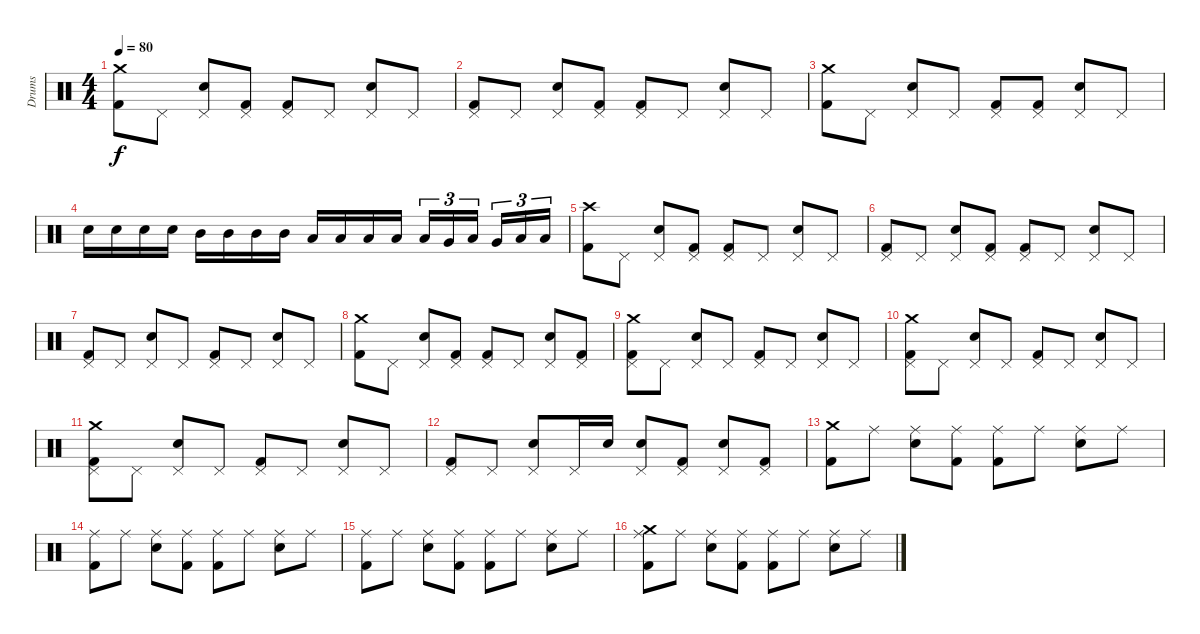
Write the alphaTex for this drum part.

\track ("Drums" "Drums") {instrument percussion}
\staff {score}
\articulation defaults
\ts (4 4)
\tempo 80
\clef neutral
\ks c
("Crash medium (hit)" "Kick (hit) 2").8{dy f} "Pedal Hi-Hat (hit)".8 ("Pedal Hi-Hat (hit)" "Snare (hit) 2").8 ("Pedal Hi-Hat (hit)" "Kick (hit) 2").8 ("Pedal Hi-Hat (hit)" "Kick (hit) 2").8 "Pedal Hi-Hat (hit)".8 ("Pedal Hi-Hat (hit)" "Snare (hit) 2").8 "Pedal Hi-Hat (hit)".8 |
("Pedal Hi-Hat (hit)" "Kick (hit) 2").8 "Pedal Hi-Hat (hit)".8 ("Pedal Hi-Hat (hit)" "Snare (hit) 2").8 ("Pedal Hi-Hat (hit)" "Kick (hit) 2").8 ("Pedal Hi-Hat (hit)" "Kick (hit) 2").8 "Pedal Hi-Hat (hit)".8 ("Pedal Hi-Hat (hit)" "Snare (hit) 2").8 "Pedal Hi-Hat (hit)".8 |
("Crash medium (hit)" "Kick (hit) 2").8 "Pedal Hi-Hat (hit)".8 ("Pedal Hi-Hat (hit)" "Snare (hit) 2").8 "Pedal Hi-Hat (hit)".8 ("Pedal Hi-Hat (hit)" "Kick (hit) 2").8 ("Pedal Hi-Hat (hit)" "Kick (hit) 2").8 ("Pedal Hi-Hat (hit)" "Snare (hit) 2").8 "Pedal Hi-Hat (hit)".8 |
"Snare (hit) 2".16 "Snare (hit) 2".16 "Snare (hit) 2".16 "Snare (hit) 2".16 "Mid Tom (hit)".16 "Mid Tom (hit)".16 "Mid Tom (hit)".16 "Mid Tom (hit)".16 "Low Tom (hit)".16 "Low Tom (hit)".16 "Low Tom (hit)".16 "Low Tom (hit)".16 "Low Tom (hit)".16{tu (3 2)} "Very Low Tom (hit)".16{tu (3 2)} "Low Floor Tom (hit)".16{tu (3 2)} "Very Low Tom (hit)".16{tu (3 2)} "Low Floor Tom (hit)".16{tu (3 2)} "Low Floor Tom (hit)".16{tu (3 2)} |
("Crash high (hit)" "Kick (hit) 2").8 "Pedal Hi-Hat (hit)".8 ("Pedal Hi-Hat (hit)" "Snare (hit) 2").8 ("Pedal Hi-Hat (hit)" "Kick (hit) 2").8 ("Pedal Hi-Hat (hit)" "Kick (hit) 2").8 "Pedal Hi-Hat (hit)".8 ("Pedal Hi-Hat (hit)" "Snare (hit) 2").8 "Pedal Hi-Hat (hit)".8 |
("Pedal Hi-Hat (hit)" "Kick (hit) 2").8 "Pedal Hi-Hat (hit)".8 ("Pedal Hi-Hat (hit)" "Snare (hit) 2").8 ("Pedal Hi-Hat (hit)" "Kick (hit) 2").8 ("Pedal Hi-Hat (hit)" "Kick (hit) 2").8 "Pedal Hi-Hat (hit)".8 ("Pedal Hi-Hat (hit)" "Snare (hit) 2").8 "Pedal Hi-Hat (hit)".8 |
("Pedal Hi-Hat (hit)" "Kick (hit) 2").8 "Pedal Hi-Hat (hit)".8 ("Snare (hit) 2" "Pedal Hi-Hat (hit)").8 "Pedal Hi-Hat (hit)".8 ("Pedal Hi-Hat (hit)" "Kick (hit) 2").8 "Pedal Hi-Hat (hit)".8 ("Pedal Hi-Hat (hit)" "Snare (hit) 2").8 "Pedal Hi-Hat (hit)".8 |
("Crash medium (hit)" "Kick (hit) 2").8 "Pedal Hi-Hat (hit)".8 ("Pedal Hi-Hat (hit)" "Snare (hit) 2").8 ("Pedal Hi-Hat (hit)" "Kick (hit) 2").8 ("Pedal Hi-Hat (hit)" "Kick (hit) 2").8 "Pedal Hi-Hat (hit)".8 ("Pedal Hi-Hat (hit)" "Snare (hit) 2").8 ("Pedal Hi-Hat (hit)" "Kick (hit) 2").8 |
("Pedal Hi-Hat (hit)" "Crash medium (hit)" "Kick (hit) 2").8 "Pedal Hi-Hat (hit)".8 ("Pedal Hi-Hat (hit)" "Snare (hit) 2").8 "Pedal Hi-Hat (hit)".8 ("Pedal Hi-Hat (hit)" "Kick (hit) 2").8 "Pedal Hi-Hat (hit)".8 ("Pedal Hi-Hat (hit)" "Snare (hit) 2").8 "Pedal Hi-Hat (hit)".8 |
("Pedal Hi-Hat (hit)" "Crash medium (hit)" "Kick (hit) 2").8 "Pedal Hi-Hat (hit)".8 ("Pedal Hi-Hat (hit)" "Snare (hit) 2").8 "Pedal Hi-Hat (hit)".8 ("Pedal Hi-Hat (hit)" "Kick (hit) 2").8 "Pedal Hi-Hat (hit)".8 ("Pedal Hi-Hat (hit)" "Snare (hit) 2").8 "Pedal Hi-Hat (hit)".8 |
("Pedal Hi-Hat (hit)" "Crash medium (hit)" "Kick (hit) 2").8 "Pedal Hi-Hat (hit)".8 ("Pedal Hi-Hat (hit)" "Snare (hit) 2").8 "Pedal Hi-Hat (hit)".8 ("Pedal Hi-Hat (hit)" "Kick (hit) 2").8 "Pedal Hi-Hat (hit)".8 ("Pedal Hi-Hat (hit)" "Snare (hit) 2").8 "Pedal Hi-Hat (hit)".8 |
("Pedal Hi-Hat (hit)" "Kick (hit) 2").8 "Pedal Hi-Hat (hit)".8 ("Pedal Hi-Hat (hit)" "Snare (hit) 2").8 "Pedal Hi-Hat (hit)".16 "Snare (hit) 2".16 ("Pedal Hi-Hat (hit)" "Snare (hit) 2").8 ("Pedal Hi-Hat (hit)" "Kick (hit) 2").8 ("Pedal Hi-Hat (hit)" "Snare (hit) 2").8 ("Pedal Hi-Hat (hit)" "Kick (hit) 2").8 |
("Crash medium (hit)" "Kick (hit) 2").8 "Ride (middle)".8 ("Ride (middle)" "Snare (hit) 2").8 ("Ride (middle)" "Kick (hit) 2").8 ("Ride (middle)" "Kick (hit) 2").8 "Ride (middle)".8 ("Ride (middle)" "Snare (hit) 2").8 "Ride (middle)".8 |
("Ride (middle)" "Kick (hit) 2").8 "Ride (middle)".8 ("Ride (middle)" "Snare (hit) 2").8 ("Ride (middle)" "Kick (hit) 2").8 ("Ride (middle)" "Kick (hit) 2").8 "Ride (middle)".8 ("Ride (middle)" "Snare (hit) 2").8 "Ride (middle)".8 |
("Ride (middle)" "Kick (hit) 2").8 "Ride (middle)".8 ("Ride (middle)" "Snare (hit) 2").8 ("Ride (middle)" "Kick (hit) 2").8 ("Ride (middle)" "Kick (hit) 2").8 "Ride (middle)".8 ("Ride (middle)" "Snare (hit) 2").8 "Ride (middle)".8 |
("Ride (middle)" "Kick (hit) 2" "Crash medium (hit)").8 "Ride (middle)".8 ("Ride (middle)" "Snare (hit) 2").8 ("Ride (middle)" "Kick (hit) 2").8 ("Ride (middle)" "Kick (hit) 2").8 "Ride (middle)".8 ("Ride (middle)" "Snare (hit) 2").8 "Ride (middle)".8
